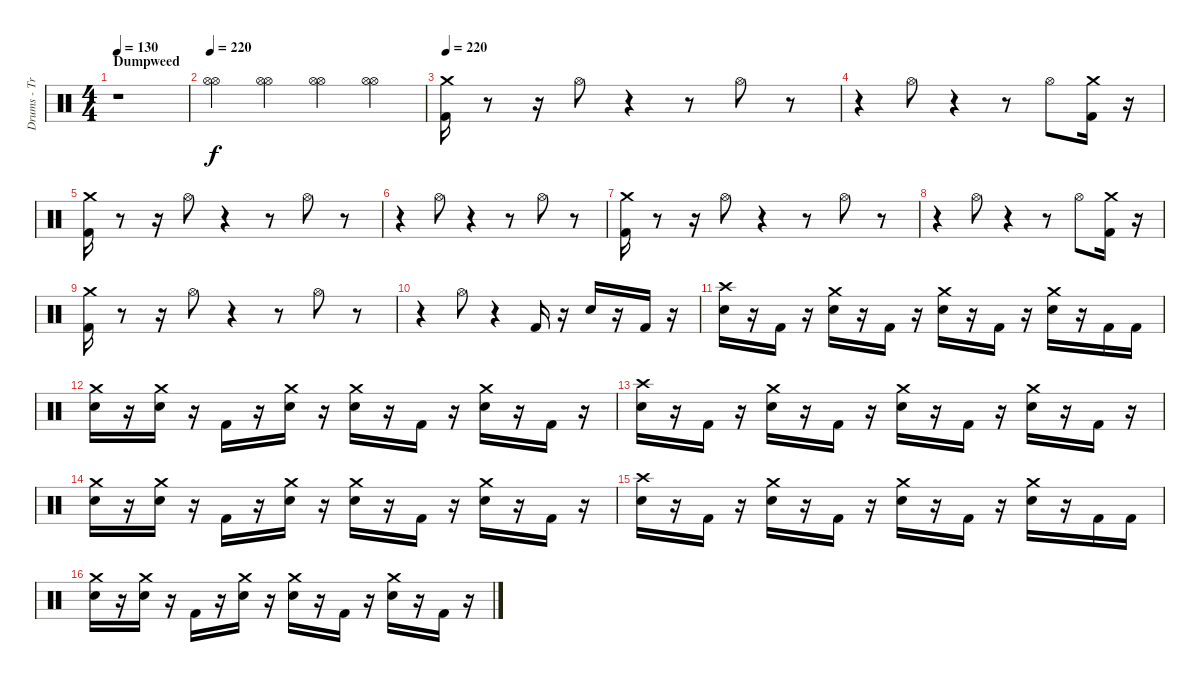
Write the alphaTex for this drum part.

\track ("Drums - Travis Barker" "Drums - Tr") {instrument percussion}
\staff {score}
\articulation defaults
\ts (4 4)
\section ("" "Dumpweed")
\tempo 130
\clef neutral
\ks c
r.1{dy f} |
\tempo 220
("Hi-Hat (open)" "Hi-Hat (open)").4{volume 16} ("Hi-Hat (open)" "Hi-Hat (open)").4 ("Hi-Hat (open)" "Hi-Hat (open)").4 ("Hi-Hat (open)" "Hi-Hat (open)").4 |
\tempo 220
("Kick (hit) 2" "Crash medium (hit)").16{volume 14} r.8 r.16 "Hi-Hat (open)".8 r.4 r.8 "Hi-Hat (open)".8 r.8 |
r.4 "Hi-Hat (open)".8 r.4 r.8 "Hi-Hat (open)".8 ("Kick (hit) 2" "Crash medium (hit)").16 r.16 |
("Kick (hit) 2" "Crash medium (hit)").16 r.8 r.16 "Hi-Hat (open)".8 r.4 r.8 "Hi-Hat (open)".8 r.8 |
r.4 "Hi-Hat (open)".8 r.4 r.8 "Hi-Hat (open)".8 r.8 |
("Kick (hit) 2" "Crash medium (hit)").16 r.8 r.16 "Hi-Hat (open)".8 r.4 r.8 "Hi-Hat (open)".8 r.8 |
r.4 "Hi-Hat (open)".8 r.4 r.8 "Hi-Hat (open)".8 ("Kick (hit) 2" "Crash medium (hit)").16 r.16 |
("Kick (hit) 2" "Crash medium (hit)").16 r.8 r.16 "Hi-Hat (open)".8 r.4 r.8 "Hi-Hat (open)".8 r.8 |
r.4 "Hi-Hat (open)".8 r.4 "Kick (hit) 2".16 r.16 "Electric Snare (hit)".16 r.16 "Kick (hit) 2".16 r.16 |
("Electric Snare (hit)" "Crash high (hit)").16 r.16 "Kick (hit) 2".16 r.16 ("Electric Snare (hit)" "Crash medium (hit)").16 r.16 "Kick (hit) 2".16 r.16 ("Electric Snare (hit)" "Crash medium (hit)").16 r.16 "Kick (hit) 2".16 r.16 ("Electric Snare (hit)" "Crash medium (hit)").16 r.16 "Kick (hit) 2".16 "Kick (hit) 2".16 |
("Electric Snare (hit)" "Crash medium (hit)").16 r.16 ("Electric Snare (hit)" "Crash medium (hit)").16 r.16 "Kick (hit) 2".16 r.16 ("Electric Snare (hit)" "Crash medium (hit)").16 r.16 ("Electric Snare (hit)" "Crash medium (hit)").16 r.16 "Kick (hit) 2".16 r.16 ("Electric Snare (hit)" "Crash medium (hit)").16 r.16 "Kick (hit) 2".16 r.16 |
("Electric Snare (hit)" "Crash high (hit)").16 r.16 "Kick (hit) 2".16 r.16 ("Electric Snare (hit)" "Crash medium (hit)").16 r.16 "Kick (hit) 2".16 r.16 ("Electric Snare (hit)" "Crash medium (hit)").16 r.16 "Kick (hit) 2".16 r.16 ("Electric Snare (hit)" "Crash medium (hit)").16 r.16 "Kick (hit) 2".16 r.16 |
("Electric Snare (hit)" "Crash medium (hit)").16 r.16 ("Electric Snare (hit)" "Crash medium (hit)").16 r.16 "Kick (hit) 2".16 r.16 ("Electric Snare (hit)" "Crash medium (hit)").16 r.16 ("Electric Snare (hit)" "Crash medium (hit)").16 r.16 "Kick (hit) 2".16 r.16 ("Electric Snare (hit)" "Crash medium (hit)").16 r.16 "Kick (hit) 2".16 r.16 |
("Electric Snare (hit)" "Crash high (hit)").16 r.16 "Kick (hit) 2".16 r.16 ("Electric Snare (hit)" "Crash medium (hit)").16 r.16 "Kick (hit) 2".16 r.16 ("Electric Snare (hit)" "Crash medium (hit)").16 r.16 "Kick (hit) 2".16 r.16 ("Electric Snare (hit)" "Crash medium (hit)").16 r.16 "Kick (hit) 2".16 "Kick (hit) 2".16 |
("Electric Snare (hit)" "Crash medium (hit)").16 r.16 ("Electric Snare (hit)" "Crash medium (hit)").16 r.16 "Kick (hit) 2".16 r.16 ("Electric Snare (hit)" "Crash medium (hit)").16 r.16 ("Electric Snare (hit)" "Crash medium (hit)").16 r.16 "Kick (hit) 2".16 r.16 ("Electric Snare (hit)" "Crash medium (hit)").16 r.16 "Kick (hit) 2".16 r.16
